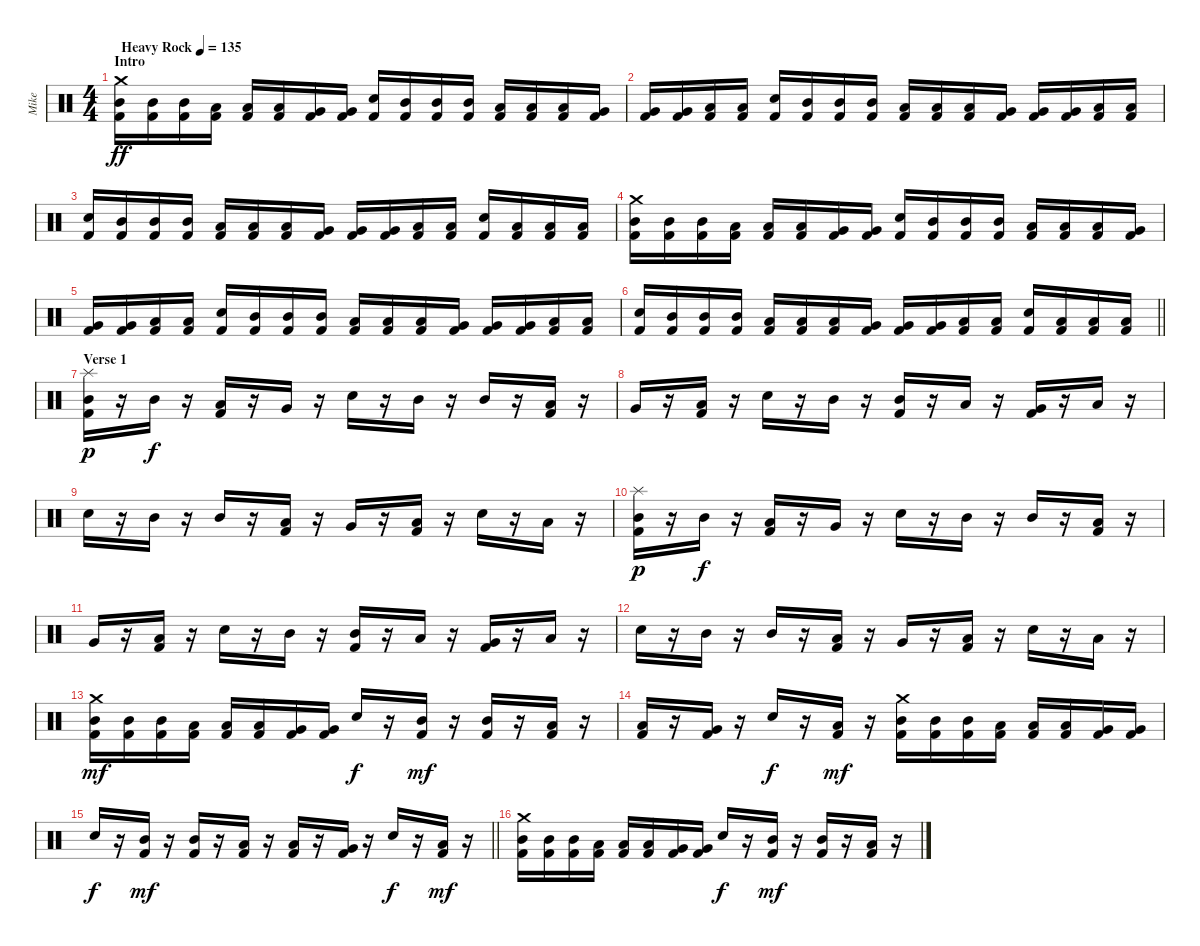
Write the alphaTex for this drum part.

\track ("Mike" "Mike") {instrument percussion}
\staff {score}
\articulation defaults
\ts (4 4)
\section ("" "Intro")
\tempo (135 "Heavy Rock")
\clef neutral
\ks c
("Crash medium (hit)" "Mid Tom (hit)" "Kick (hit) 2").16{dy ff} ("Mid Tom (hit)" "Kick (hit) 2").16 ("Mid Tom (hit)" "Kick (hit) 2").16 ("Low Tom (hit)" "Kick (hit) 2").16 ("Low Tom (hit)" "Kick (hit) 2").16 ("Low Tom (hit)" "Kick (hit) 2").16 ("Very Low Tom (hit)" "Kick (hit) 2").16 ("Very Low Tom (hit)" "Kick (hit) 2").16 ("Snare (hit) 2" "Kick (hit) 2").16 ("Mid Tom (hit)" "Kick (hit) 2").16 ("Mid Tom (hit)" "Kick (hit) 2").16 ("Mid Tom (hit)" "Kick (hit) 2").16 ("Low Tom (hit)" "Kick (hit) 2").16 ("Low Tom (hit)" "Kick (hit) 2").16 ("Low Tom (hit)" "Kick (hit) 2").16 ("Very Low Tom (hit)" "Kick (hit) 2").16 |
("Very Low Tom (hit)" "Kick (hit) 2").16 ("Very Low Tom (hit)" "Kick (hit) 2").16 ("Low Floor Tom (hit)" "Kick (hit) 2").16 ("Low Floor Tom (hit)" "Kick (hit) 2").16 ("Snare (hit) 2" "Kick (hit) 2").16 ("Mid Tom (hit)" "Kick (hit) 2").16 ("Mid Tom (hit)" "Kick (hit) 2").16 ("Mid Tom (hit)" "Kick (hit) 2").16 ("Low Tom (hit)" "Kick (hit) 2").16 ("Low Tom (hit)" "Kick (hit) 2").16 ("Low Tom (hit)" "Kick (hit) 2").16 ("Very Low Tom (hit)" "Kick (hit) 2").16 ("Very Low Tom (hit)" "Kick (hit) 2").16 ("Very Low Tom (hit)" "Kick (hit) 2").16 ("Low Floor Tom (hit)" "Kick (hit) 2").16 ("Low Floor Tom (hit)" "Kick (hit) 2").16 |
("Snare (hit) 2" "Kick (hit) 2").16 ("Mid Tom (hit)" "Kick (hit) 2").16 ("Mid Tom (hit)" "Kick (hit) 2").16 ("Mid Tom (hit)" "Kick (hit) 2").16 ("Low Tom (hit)" "Kick (hit) 2").16 ("Low Tom (hit)" "Kick (hit) 2").16 ("Low Tom (hit)" "Kick (hit) 2").16 ("Very Low Tom (hit)" "Kick (hit) 2").16 ("Very Low Tom (hit)" "Kick (hit) 2").16 ("Very Low Tom (hit)" "Kick (hit) 2").16 ("Low Floor Tom (hit)" "Kick (hit) 2").16 ("Low Floor Tom (hit)" "Kick (hit) 2").16 ("Snare (hit) 2" "Kick (hit) 2").16 ("Low Tom (hit)" "Kick (hit) 2").16 ("Low Tom (hit)" "Kick (hit) 2").16 ("Low Tom (hit)" "Kick (hit) 2").16 |
("Crash medium (hit)" "Mid Tom (hit)" "Kick (hit) 2").16 ("Mid Tom (hit)" "Kick (hit) 2").16 ("Mid Tom (hit)" "Kick (hit) 2").16 ("Low Tom (hit)" "Kick (hit) 2").16 ("Low Tom (hit)" "Kick (hit) 2").16 ("Low Tom (hit)" "Kick (hit) 2").16 ("Very Low Tom (hit)" "Kick (hit) 2").16 ("Very Low Tom (hit)" "Kick (hit) 2").16 ("Snare (hit) 2" "Kick (hit) 2").16 ("Mid Tom (hit)" "Kick (hit) 2").16 ("Mid Tom (hit)" "Kick (hit) 2").16 ("Mid Tom (hit)" "Kick (hit) 2").16 ("Low Tom (hit)" "Kick (hit) 2").16 ("Low Tom (hit)" "Kick (hit) 2").16 ("Low Tom (hit)" "Kick (hit) 2").16 ("Very Low Tom (hit)" "Kick (hit) 2").16 |
("Very Low Tom (hit)" "Kick (hit) 2").16 ("Very Low Tom (hit)" "Kick (hit) 2").16 ("Low Floor Tom (hit)" "Kick (hit) 2").16 ("Low Floor Tom (hit)" "Kick (hit) 2").16 ("Snare (hit) 2" "Kick (hit) 2").16 ("Mid Tom (hit)" "Kick (hit) 2").16 ("Mid Tom (hit)" "Kick (hit) 2").16 ("Mid Tom (hit)" "Kick (hit) 2").16 ("Low Tom (hit)" "Kick (hit) 2").16 ("Low Tom (hit)" "Kick (hit) 2").16 ("Low Tom (hit)" "Kick (hit) 2").16 ("Very Low Tom (hit)" "Kick (hit) 2").16 ("Very Low Tom (hit)" "Kick (hit) 2").16 ("Very Low Tom (hit)" "Kick (hit) 2").16 ("Low Floor Tom (hit)" "Kick (hit) 2").16 ("Low Floor Tom (hit)" "Kick (hit) 2").16 |
\barLineRight lightlight
("Snare (hit) 2" "Kick (hit) 2").16 ("Mid Tom (hit)" "Kick (hit) 2").16 ("Mid Tom (hit)" "Kick (hit) 2").16 ("Mid Tom (hit)" "Kick (hit) 2").16 ("Low Tom (hit)" "Kick (hit) 2").16 ("Low Tom (hit)" "Kick (hit) 2").16 ("Low Tom (hit)" "Kick (hit) 2").16 ("Very Low Tom (hit)" "Kick (hit) 2").16 ("Very Low Tom (hit)" "Kick (hit) 2").16 ("Very Low Tom (hit)" "Kick (hit) 2").16 ("Low Floor Tom (hit)" "Kick (hit) 2").16 ("Low Floor Tom (hit)" "Kick (hit) 2").16 ("Snare (hit) 2" "Kick (hit) 2").16 ("Low Tom (hit)" "Kick (hit) 2").16 ("Low Tom (hit)" "Kick (hit) 2").16 ("Low Tom (hit)" "Kick (hit) 2").16 |
\section ("" "Verse 1")
("Splash (hit)" "Mid Tom (hit)" "Kick (hit) 2").16{dy p} r.16 "Mid Tom (hit)".16{dy f} r.16 ("Low Tom (hit)" "Kick (hit) 2").16 r.16 "Very Low Tom (hit)".16 r.16 "Snare (hit) 2".16 r.16 "Mid Tom (hit)".16 r.16 "Mid Tom (hit)".16 r.16 ("Low Tom (hit)" "Kick (hit) 2").16 r.16 |
"Very Low Tom (hit)".16 r.16 ("Low Floor Tom (hit)" "Kick (hit) 2").16 r.16 "Snare (hit) 2".16 r.16 "Mid Tom (hit)".16 r.16 ("Mid Tom (hit)" "Kick (hit) 2").16 r.16 "Low Tom (hit)".16 r.16 ("Very Low Tom (hit)" "Kick (hit) 2").16 r.16 "Low Floor Tom (hit)".16 r.16 |
"Snare (hit) 2".16 r.16 "Mid Tom (hit)".16 r.16 "Mid Tom (hit)".16 r.16 ("Low Tom (hit)" "Kick (hit) 2").16 r.16 "Very Low Tom (hit)".16 r.16 ("Low Floor Tom (hit)" "Kick (hit) 2").16 r.16 "Snare (hit) 2".16 r.16 "Low Tom (hit)".16 r.16 |
("Splash (hit)" "Mid Tom (hit)" "Kick (hit) 2").16{dy p} r.16 "Mid Tom (hit)".16{dy f} r.16 ("Low Tom (hit)" "Kick (hit) 2").16 r.16 "Very Low Tom (hit)".16 r.16 "Snare (hit) 2".16 r.16 "Mid Tom (hit)".16 r.16 "Mid Tom (hit)".16 r.16 ("Low Tom (hit)" "Kick (hit) 2").16 r.16 |
"Very Low Tom (hit)".16 r.16 ("Low Floor Tom (hit)" "Kick (hit) 2").16 r.16 "Snare (hit) 2".16 r.16 "Mid Tom (hit)".16 r.16 ("Mid Tom (hit)" "Kick (hit) 2").16 r.16 "Low Tom (hit)".16 r.16 ("Very Low Tom (hit)" "Kick (hit) 2").16 r.16 "Low Floor Tom (hit)".16 r.16 |
"Snare (hit) 2".16 r.16 "Mid Tom (hit)".16 r.16 "Mid Tom (hit)".16 r.16 ("Low Tom (hit)" "Kick (hit) 2").16 r.16 "Very Low Tom (hit)".16 r.16 ("Low Floor Tom (hit)" "Kick (hit) 2").16 r.16 "Snare (hit) 2".16 r.16 "Low Tom (hit)".16 r.16 |
("Crash medium (hit)" "Mid Tom (hit)" "Kick (hit) 2").16{dy mf} ("Mid Tom (hit)" "Kick (hit) 2").16 ("Mid Tom (hit)" "Kick (hit) 2").16 ("Low Tom (hit)" "Kick (hit) 2").16 ("Low Tom (hit)" "Kick (hit) 2").16 ("Low Tom (hit)" "Kick (hit) 2").16 ("Very Low Tom (hit)" "Kick (hit) 2").16 ("Very Low Tom (hit)" "Kick (hit) 2").16 "Snare (hit) 2".16{dy f} r.16 ("Mid Tom (hit)" "Kick (hit) 2").16{dy mf} r.16 ("Mid Tom (hit)" "Kick (hit) 2").16 r.16 ("Low Tom (hit)" "Kick (hit) 2").16 r.16 |
("Low Tom (hit)" "Kick (hit) 2").16 r.16 ("Very Low Tom (hit)" "Kick (hit) 2").16 r.16 "Snare (hit) 2".16{dy f} r.16 ("Low Tom (hit)" "Kick (hit) 2").16{dy mf} r.16 ("Crash medium (hit)" "Mid Tom (hit)" "Kick (hit) 2").16 ("Mid Tom (hit)" "Kick (hit) 2").16 ("Mid Tom (hit)" "Kick (hit) 2").16 ("Low Tom (hit)" "Kick (hit) 2").16 ("Low Tom (hit)" "Kick (hit) 2").16 ("Low Tom (hit)" "Kick (hit) 2").16 ("Very Low Tom (hit)" "Kick (hit) 2").16 ("Very Low Tom (hit)" "Kick (hit) 2").16 |
\barLineRight lightlight "Snare (hit) 2".16{dy f}
r.16 ("Mid Tom (hit)" "Kick (hit) 2").16{dy mf} r.16 ("Mid Tom (hit)" "Kick (hit) 2").16 r.16 ("Low Tom (hit)" "Kick (hit) 2").16 r.16 ("Low Tom (hit)" "Kick (hit) 2").16 r.16 ("Very Low Tom (hit)" "Kick (hit) 2").16 r.16 "Snare (hit) 2".16{dy f} r.16 ("Low Tom (hit)" "Kick (hit) 2").16{dy mf} r.16 |
("Crash medium (hit)" "Mid Tom (hit)" "Kick (hit) 2").16 ("Mid Tom (hit)" "Kick (hit) 2").16 ("Mid Tom (hit)" "Kick (hit) 2").16 ("Low Tom (hit)" "Kick (hit) 2").16 ("Low Tom (hit)" "Kick (hit) 2").16 ("Low Tom (hit)" "Kick (hit) 2").16 ("Very Low Tom (hit)" "Kick (hit) 2").16 ("Very Low Tom (hit)" "Kick (hit) 2").16 "Snare (hit) 2".16{dy f} r.16 ("Mid Tom (hit)" "Kick (hit) 2").16{dy mf} r.16 ("Mid Tom (hit)" "Kick (hit) 2").16 r.16 ("Low Tom (hit)" "Kick (hit) 2").16 r.16
